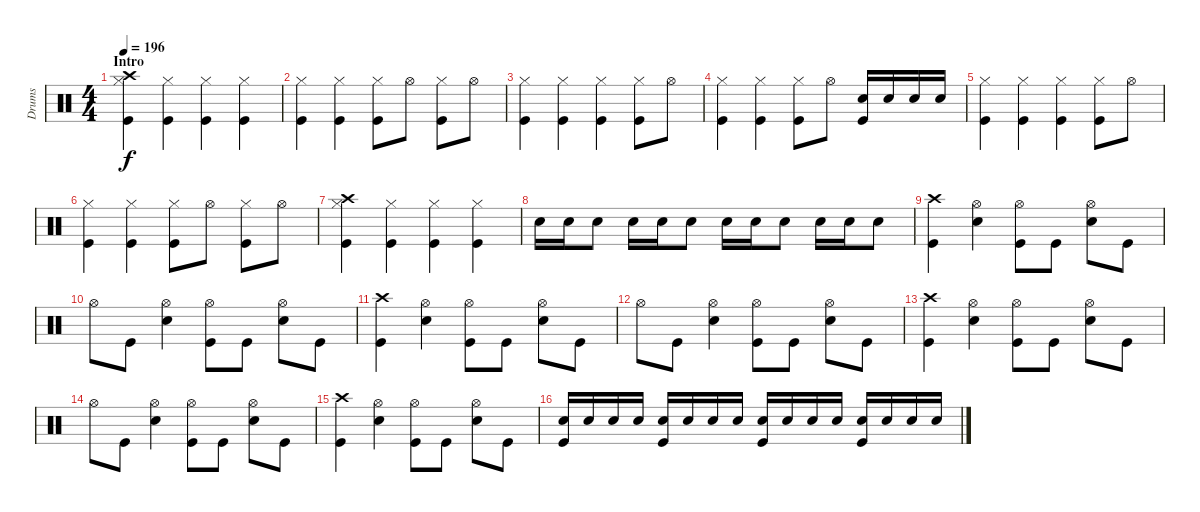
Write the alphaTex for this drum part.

\track ("Drums" "Drums") {instrument percussion}
\staff {score}
\articulation defaults
\ts (4 4)
\section ("" "Intro")
\tempo 196
\clef neutral
\ks c
("Hi-Hat (closed)" "Kick (hit)" "Crash high (hit)").4{dy f} ("Hi-Hat (closed)" "Kick (hit)").4 ("Hi-Hat (closed)" "Kick (hit)").4 ("Hi-Hat (closed)" "Kick (hit)").4 |
("Hi-Hat (closed)" "Kick (hit)").4 ("Hi-Hat (closed)" "Kick (hit)").4 ("Hi-Hat (closed)" "Kick (hit)").8 "Hi-Hat (open)".8 ("Hi-Hat (closed)" "Kick (hit)").8 "Hi-Hat (open)".8 |
("Hi-Hat (closed)" "Kick (hit)").4 ("Hi-Hat (closed)" "Kick (hit)").4 ("Hi-Hat (closed)" "Kick (hit)").4 ("Hi-Hat (closed)" "Kick (hit)").8 "Hi-Hat (open)".8 |
("Hi-Hat (closed)" "Kick (hit)").4 ("Hi-Hat (closed)" "Kick (hit)").4 ("Hi-Hat (closed)" "Kick (hit)").8 "Hi-Hat (open)".8 ("Kick (hit)" "Electric Snare (hit)").16 "Electric Snare (hit)".16 "Electric Snare (hit)".16 "Electric Snare (hit)".16 |
("Hi-Hat (closed)" "Kick (hit)").4 ("Hi-Hat (closed)" "Kick (hit)").4 ("Hi-Hat (closed)" "Kick (hit)").4 ("Hi-Hat (closed)" "Kick (hit)").8 "Hi-Hat (open)".8 |
("Hi-Hat (closed)" "Kick (hit)").4 ("Hi-Hat (closed)" "Kick (hit)").4 ("Hi-Hat (closed)" "Kick (hit)").8 "Hi-Hat (open)".8 ("Hi-Hat (closed)" "Kick (hit)").8 "Hi-Hat (open)".8 |
("Hi-Hat (closed)" "Kick (hit)" "Crash high (hit)").4 ("Hi-Hat (closed)" "Kick (hit)").4 ("Hi-Hat (closed)" "Kick (hit)").4 ("Hi-Hat (closed)" "Kick (hit)").4 |
"Electric Snare (hit)".16 "Electric Snare (hit)".16 "Electric Snare (hit)".8 "Electric Snare (hit)".16 "Electric Snare (hit)".16 "Electric Snare (hit)".8 "Electric Snare (hit)".16 "Electric Snare (hit)".16 "Electric Snare (hit)".8 "Electric Snare (hit)".16 "Electric Snare (hit)".16 "Electric Snare (hit)".8 |
("Crash high (hit)" "Kick (hit)").4 ("Hi-Hat (open)" "Electric Snare (hit)").4 ("Hi-Hat (open)" "Kick (hit)").8 "Kick (hit)".8 ("Hi-Hat (open)" "Electric Snare (hit)").8 "Kick (hit)".8 |
"Hi-Hat (open)".8 "Kick (hit)".8 ("Hi-Hat (open)" "Electric Snare (hit)").4 ("Hi-Hat (open)" "Kick (hit)").8 "Kick (hit)".8 ("Hi-Hat (open)" "Electric Snare (hit)").8 "Kick (hit)".8 |
("Crash high (hit)" "Kick (hit)").4 ("Hi-Hat (open)" "Electric Snare (hit)").4 ("Hi-Hat (open)" "Kick (hit)").8 "Kick (hit)".8 ("Hi-Hat (open)" "Electric Snare (hit)").8 "Kick (hit)".8 |
"Hi-Hat (open)".8 "Kick (hit)".8 ("Hi-Hat (open)" "Electric Snare (hit)").4 ("Hi-Hat (open)" "Kick (hit)").8 "Kick (hit)".8 ("Hi-Hat (open)" "Electric Snare (hit)").8 "Kick (hit)".8 |
("Crash high (hit)" "Kick (hit)").4 ("Hi-Hat (open)" "Electric Snare (hit)").4 ("Hi-Hat (open)" "Kick (hit)").8 "Kick (hit)".8 ("Hi-Hat (open)" "Electric Snare (hit)").8 "Kick (hit)".8 |
"Hi-Hat (open)".8 "Kick (hit)".8 ("Hi-Hat (open)" "Electric Snare (hit)").4 ("Hi-Hat (open)" "Kick (hit)").8 "Kick (hit)".8 ("Hi-Hat (open)" "Electric Snare (hit)").8 "Kick (hit)".8 |
("Crash high (hit)" "Kick (hit)").4 ("Hi-Hat (open)" "Electric Snare (hit)").4 ("Hi-Hat (open)" "Kick (hit)").8 "Kick (hit)".8 ("Hi-Hat (open)" "Electric Snare (hit)").8 "Kick (hit)".8 |
("Kick (hit)" "Electric Snare (hit)").16 "Electric Snare (hit)".16 "Electric Snare (hit)".16 "Electric Snare (hit)".16 ("Kick (hit)" "Electric Snare (hit)").16 "Electric Snare (hit)".16 "Electric Snare (hit)".16 "Electric Snare (hit)".16 ("Kick (hit)" "Electric Snare (hit)").16 "Electric Snare (hit)".16 "Electric Snare (hit)".16 "Electric Snare (hit)".16 ("Kick (hit)" "Electric Snare (hit)").16 "Electric Snare (hit)".16 "Electric Snare (hit)".16 "Electric Snare (hit)".16
